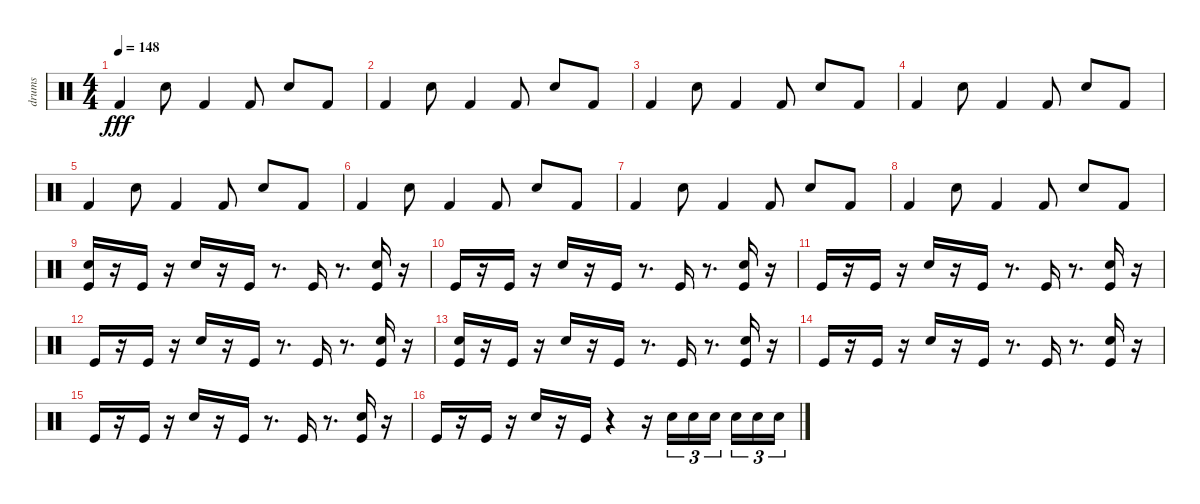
\track ("drums" "drums") {instrument percussion}
\staff {score}
\articulation defaults
\ts (4 4)
\tempo 148
\clef neutral
\ks c "Kick (hit) 2".4{dy fff} "Electric Snare (hit)".8 "Kick (hit) 2".4 "Kick (hit) 2".8 "Electric Snare (hit)".8 "Kick (hit) 2".8
|
"Kick (hit) 2".4 "Electric Snare (hit)".8 "Kick (hit) 2".4 "Kick (hit) 2".8 "Electric Snare (hit)".8 "Kick (hit) 2".8 |
"Kick (hit) 2".4 "Electric Snare (hit)".8 "Kick (hit) 2".4 "Kick (hit) 2".8 "Electric Snare (hit)".8 "Kick (hit) 2".8 |
"Kick (hit) 2".4 "Electric Snare (hit)".8 "Kick (hit) 2".4 "Kick (hit) 2".8 "Electric Snare (hit)".8 "Kick (hit) 2".8 |
"Kick (hit) 2".4 "Electric Snare (hit)".8 "Kick (hit) 2".4 "Kick (hit) 2".8 "Electric Snare (hit)".8 "Kick (hit) 2".8 |
"Kick (hit) 2".4 "Electric Snare (hit)".8 "Kick (hit) 2".4 "Kick (hit) 2".8 "Electric Snare (hit)".8 "Kick (hit) 2".8 |
"Kick (hit) 2".4 "Electric Snare (hit)".8 "Kick (hit) 2".4 "Kick (hit) 2".8 "Electric Snare (hit)".8 "Kick (hit) 2".8 |
"Kick (hit) 2".4 "Electric Snare (hit)".8 "Kick (hit) 2".4 "Kick (hit) 2".8 "Electric Snare (hit)".8 "Kick (hit) 2".8 |
("Kick (hit)" "Electric Snare (hit)").16 r.16 "Kick (hit)".16 r.16 "Hand Clap (hit)".16 r.16 "Kick (hit)".16 r.8{d} "Kick (hit)".16 r.8{d} ("Kick (hit)" "Hand Clap (hit)").16 r.16 |
"Kick (hit)".16 r.16 "Kick (hit)".16 r.16 "Hand Clap (hit)".16 r.16 "Kick (hit)".16 r.8{d} "Kick (hit)".16 r.8{d} ("Kick (hit)" "Hand Clap (hit)").16 r.16 |
"Kick (hit)".16 r.16 "Kick (hit)".16 r.16 "Hand Clap (hit)".16 r.16 "Kick (hit)".16 r.8{d} "Kick (hit)".16 r.8{d} ("Kick (hit)" "Hand Clap (hit)").16 r.16 |
"Kick (hit)".16 r.16 "Kick (hit)".16 r.16 "Hand Clap (hit)".16 r.16 "Kick (hit)".16 r.8{d} "Kick (hit)".16 r.8{d} ("Kick (hit)" "Hand Clap (hit)").16 r.16 |
("Kick (hit)" "Electric Snare (hit)").16 r.16 "Kick (hit)".16 r.16 "Hand Clap (hit)".16 r.16 "Kick (hit)".16 r.8{d} "Kick (hit)".16 r.8{d} ("Kick (hit)" "Hand Clap (hit)").16 r.16 |
"Kick (hit)".16 r.16 "Kick (hit)".16 r.16 "Hand Clap (hit)".16 r.16 "Kick (hit)".16 r.8{d} "Kick (hit)".16 r.8{d} ("Kick (hit)" "Hand Clap (hit)").16 r.16 |
"Kick (hit)".16 r.16 "Kick (hit)".16 r.16 "Hand Clap (hit)".16 r.16 "Kick (hit)".16 r.8{d} "Kick (hit)".16 r.8{d} ("Kick (hit)" "Hand Clap (hit)").16 r.16 |
"Kick (hit)".16 r.16 "Kick (hit)".16 r.16 "Hand Clap (hit)".16 r.16 "Kick (hit)".16 r.4 r.16 "Electric Snare (hit)".16{tu (3 2)} "Electric Snare (hit)".16{tu (3 2)} "Electric Snare (hit)".16{tu (3 2) beam splitsecondary} "Electric Snare (hit)".16{tu (3 2)} "Electric Snare (hit)".16{tu (3 2)} "Electric Snare (hit)".16{tu (3 2)}
